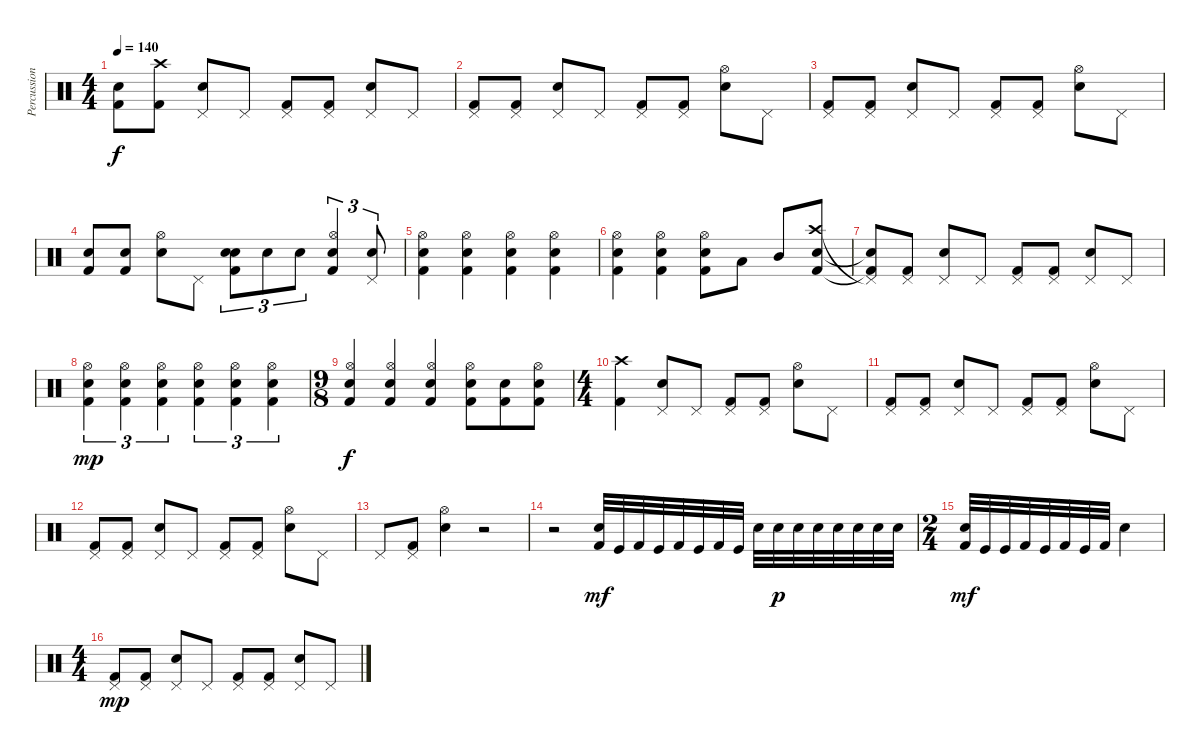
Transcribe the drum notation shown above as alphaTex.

\track ("Percussions" "Percussion") {instrument percussion}
\staff {score}
\articulation defaults
\ts (4 4)
\tempo 140
\clef neutral
\ks c
("Snare (hit)"{t} "Kick (hit) 2"{t}).8{dy f} ("Crash high (hit)" "Kick (hit) 2").8 ("Pedal Hi-Hat (hit)" "Snare (hit) 2").8 "Pedal Hi-Hat (hit)".8 ("Pedal Hi-Hat (hit)" "Kick (hit) 2").8 ("Pedal Hi-Hat (hit)" "Kick (hit) 2").8 ("Pedal Hi-Hat (hit)" "Snare (hit) 2").8 "Pedal Hi-Hat (hit)".8 |
("Pedal Hi-Hat (hit)" "Kick (hit) 2").8 ("Pedal Hi-Hat (hit)" "Kick (hit) 2").8 ("Pedal Hi-Hat (hit)" "Snare (hit) 2").8 "Pedal Hi-Hat (hit)".8 ("Pedal Hi-Hat (hit)" "Kick (hit) 2").8 ("Pedal Hi-Hat (hit)" "Kick (hit) 2").8 ("Hi-Hat (open)" "Snare (hit) 2").8 "Pedal Hi-Hat (hit)".8 |
("Pedal Hi-Hat (hit)" "Kick (hit) 2").8 ("Pedal Hi-Hat (hit)" "Kick (hit) 2").8 ("Pedal Hi-Hat (hit)" "Snare (hit) 2").8 "Pedal Hi-Hat (hit)".8 ("Pedal Hi-Hat (hit)" "Kick (hit) 2").8 ("Pedal Hi-Hat (hit)" "Kick (hit) 2").8 ("Hi-Hat (open)" "Snare (hit) 2").8 "Pedal Hi-Hat (hit)".8 |
("Snare (hit) 2" "Kick (hit) 2").8 ("Snare (hit) 2" "Kick (hit) 2").8 ("Hi-Hat (open)" "Electric Snare (hit)").8 "Pedal Hi-Hat (hit)".8 ("Electric Snare (hit)" "Snare (hit) 2" "Kick (hit) 2").8{tu (3 2)} "Snare (hit) 2".8{tu (3 2)} "Snare (hit) 2".8{tu (3 2)} ("Hi-Hat (open)" "Electric Snare (hit)" "Kick (hit) 2").4{tu (3 2)} ("Pedal Hi-Hat (hit)" "Snare (hit) 2").8{tu (3 2)} |
("Hi-Hat (open)" "Snare (hit) 2" "Kick (hit) 2").4 ("Hi-Hat (open)" "Snare (hit) 2" "Kick (hit) 2").4 ("Hi-Hat (open)" "Snare (hit) 2" "Kick (hit) 2").4 ("Hi-Hat (open)" "Snare (hit) 2" "Kick (hit) 2").4 |
("Hi-Hat (open)" "Snare (hit) 2" "Kick (hit) 2").4 ("Hi-Hat (open)" "Snare (hit) 2" "Kick (hit) 2").4 ("Hi-Hat (open)" "Snare (hit) 2" "Kick (hit) 2").8 "Low Tom (hit)".8 "Mid Tom (hit)".8 ("Crash high (hit)" "Electric Snare (hit)" "Kick (hit) 2").8 |
("Pedal Hi-Hat (hit)"{t} "Snare (hit)"{t} "Kick (hit) 2"{t}).8 ("Pedal Hi-Hat (hit)" "Kick (hit) 2").8 ("Pedal Hi-Hat (hit)" "Snare (hit) 2").8 "Pedal Hi-Hat (hit)".8 ("Pedal Hi-Hat (hit)" "Kick (hit) 2").8 ("Pedal Hi-Hat (hit)" "Kick (hit) 2").8 ("Pedal Hi-Hat (hit)" "Snare (hit) 2").8 "Pedal Hi-Hat (hit)".8 |
("Hi-Hat (open)" "Snare (hit) 2" "Kick (hit) 2").4{tu (3 2) dy mp} ("Hi-Hat (open)" "Snare (hit) 2" "Kick (hit) 2").4{tu (3 2)} ("Hi-Hat (open)" "Snare (hit) 2" "Kick (hit) 2").4{tu (3 2)} ("Hi-Hat (open)" "Snare (hit) 2" "Kick (hit) 2").4{tu (3 2)} ("Hi-Hat (open)" "Snare (hit) 2" "Kick (hit) 2").4{tu (3 2)} ("Hi-Hat (open)" "Snare (hit) 2" "Kick (hit) 2").4{tu (3 2)} |
\ts (9 8)
("Hi-Hat (open)" "Electric Snare (hit)" "Kick (hit) 2").4{dy f} ("Hi-Hat (open)" "Electric Snare (hit)" "Kick (hit) 2").4 ("Hi-Hat (open)" "Electric Snare (hit)" "Kick (hit) 2").4 ("Hi-Hat (open)" "Electric Snare (hit)" "Kick (hit) 2").8 ("Electric Snare (hit)" "Kick (hit) 2").8 ("Hi-Hat (open)" "Snare (hit) 2" "Kick (hit) 2").8 |
\ts (4 4)
("Crash high (hit)" "Kick (hit) 2").4 ("Pedal Hi-Hat (hit)" "Snare (hit) 2").8 "Pedal Hi-Hat (hit)".8 ("Pedal Hi-Hat (hit)" "Kick (hit) 2").8 ("Pedal Hi-Hat (hit)" "Kick (hit) 2").8 ("Hi-Hat (open)" "Snare (hit) 2").8 "Pedal Hi-Hat (hit)".8 |
("Pedal Hi-Hat (hit)" "Kick (hit) 2").8 ("Pedal Hi-Hat (hit)" "Kick (hit) 2").8 ("Pedal Hi-Hat (hit)" "Snare (hit) 2").8 "Pedal Hi-Hat (hit)".8 ("Pedal Hi-Hat (hit)" "Kick (hit) 2").8 ("Pedal Hi-Hat (hit)" "Kick (hit) 2").8 ("Hi-Hat (open)" "Snare (hit) 2").8 "Pedal Hi-Hat (hit)".8 |
("Pedal Hi-Hat (hit)" "Kick (hit) 2").8 ("Pedal Hi-Hat (hit)" "Kick (hit) 2").8 ("Pedal Hi-Hat (hit)" "Snare (hit) 2").8 "Pedal Hi-Hat (hit)".8 ("Pedal Hi-Hat (hit)" "Kick (hit) 2").8 ("Pedal Hi-Hat (hit)" "Kick (hit) 2").8 ("Hi-Hat (open)" "Snare (hit) 2").8 "Pedal Hi-Hat (hit)".8 |
"Pedal Hi-Hat (hit)".8 ("Pedal Hi-Hat (hit)" "Kick (hit) 2").8 ("Hi-Hat (open)" "Snare (hit) 2").4 r.2 |
r.2 ("Snare (hit) 2" "Kick (hit) 2").32{dy mf} "Kick (hit)".32 "Kick (hit) 2".32 "Kick (hit)".32 "Kick (hit) 2".32 "Kick (hit)".32 "Kick (hit) 2".32 "Kick (hit)".32 "Electric Snare (hit)".32 "Snare (hit) 2".32{dy p} "Snare (hit) 2".32 "Snare (hit) 2".32 "Snare (hit) 2".32 "Snare (hit) 2".32 "Snare (hit) 2".32 "Snare (hit) 2".32 |
\ts (2 4)
("Snare (hit) 2" "Kick (hit) 2").32{dy mf} "Kick (hit)".32 "Kick (hit)".32 "Kick (hit) 2".32 "Kick (hit)".32 "Kick (hit) 2".32 "Kick (hit)".32 "Kick (hit) 2".32 "Electric Snare (hit)".4 |
\ts (4 4)
("Pedal Hi-Hat (hit)" "Kick (hit) 2").8{dy mp} ("Pedal Hi-Hat (hit)" "Kick (hit) 2").8 ("Pedal Hi-Hat (hit)" "Snare (hit) 2").8 "Pedal Hi-Hat (hit)".8 ("Pedal Hi-Hat (hit)" "Kick (hit) 2").8 ("Pedal Hi-Hat (hit)" "Kick (hit) 2").8 ("Pedal Hi-Hat (hit)" "Snare (hit) 2").8 "Pedal Hi-Hat (hit)".8
